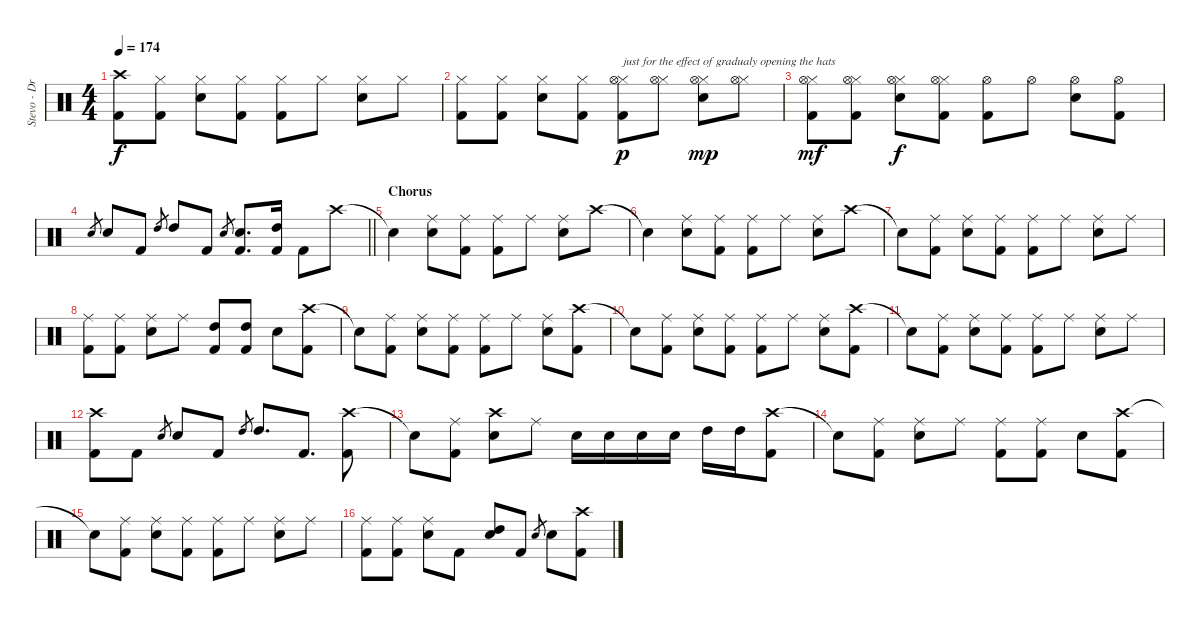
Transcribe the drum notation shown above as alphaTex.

\track ("Stevo - Drums" "Stevo - Dr") {instrument percussion}
\staff {score}
\articulation defaults
\ts (4 4)
\tempo 174
\clef neutral
\ks c
("Crash high (hit)" "Kick (hit) 2").8{dy f} ("Hi-Hat (closed)" "Kick (hit) 2").8 ("Hi-Hat (closed)" "Electric Snare (hit)").8 ("Hi-Hat (closed)" "Kick (hit) 2").8 ("Hi-Hat (closed)" "Kick (hit) 2").8 "Hi-Hat (closed)".8 ("Hi-Hat (closed)" "Electric Snare (hit)").8 "Hi-Hat (closed)".8 |
("Hi-Hat (closed)" "Kick (hit) 2").8 ("Hi-Hat (closed)" "Kick (hit) 2").8 ("Hi-Hat (closed)" "Electric Snare (hit)").8 ("Hi-Hat (closed)" "Kick (hit) 2").8 ("Hi-Hat (closed)" "Hi-Hat (open)" "Kick (hit) 2").8{txt "just for the effect of gradualy opening the hats" dy p} ("Hi-Hat (closed)" "Hi-Hat (open)").8 ("Hi-Hat (closed)" "Hi-Hat (open)" "Electric Snare (hit)").8{dy mp} ("Hi-Hat (closed)" "Hi-Hat (open)").8 |
("Hi-Hat (closed)" "Hi-Hat (open)" "Kick (hit) 2").8{dy mf} ("Hi-Hat (closed)" "Hi-Hat (open)" "Kick (hit) 2").8 ("Hi-Hat (closed)" "Hi-Hat (open)" "Electric Snare (hit)").8{dy f} ("Hi-Hat (closed)" "Hi-Hat (open)" "Kick (hit) 2").8 ("Hi-Hat (open)" "Kick (hit) 2").8 "Hi-Hat (open)".8 ("Hi-Hat (open)" "Electric Snare (hit)").8 ("Hi-Hat (open)" "Kick (hit) 2").8 |
\barLineRight lightlight "Electric Snare (hit)".8{gr} "Electric Snare (hit)".8 "Kick (hit) 2".8 "High Tom (hit)".8{gr} "High Tom (hit)".8 "Kick (hit) 2".8 "Electric Snare (hit)".8{gr}
("Electric Snare (hit)" "Kick (hit) 2").8{d} ("High Tom (hit)" "Kick (hit) 2").16 "Kick (hit) 2".8 "Crash high (hit)".8 |
\section ("" "Chorus")
"Snare (hit)"{t}.4 ("Ride (middle)" "Electric Snare (hit)").8 ("Ride (middle)" "Kick (hit) 2").8 ("Ride (middle)" "Kick (hit) 2").8 "Ride (middle)".8 ("Ride (middle)" "Electric Snare (hit)").8 "Crash high (hit)".8 |
"Snare (hit)"{t}.4 ("Ride (middle)" "Electric Snare (hit)").8 ("Ride (middle)" "Kick (hit) 2").8 ("Ride (middle)" "Kick (hit) 2").8 "Ride (middle)".8 ("Ride (middle)" "Electric Snare (hit)").8 "Crash high (hit)".8 |
"Snare (hit)"{t}.8 ("Ride (middle)" "Kick (hit) 2").8 ("Ride (middle)" "Electric Snare (hit)").8 ("Ride (middle)" "Kick (hit) 2").8 ("Ride (middle)" "Kick (hit) 2").8 "Ride (middle)".8 ("Ride (middle)" "Electric Snare (hit)").8 "Ride (middle)".8 |
("Ride (middle)" "Kick (hit) 2").8 ("Ride (middle)" "Kick (hit) 2").8 ("Ride (middle)" "Electric Snare (hit)").8 "Ride (middle)".8 ("High Tom (hit)" "Kick (hit) 2").8 ("High Tom (hit)" "Kick (hit) 2").8 "Electric Snare (hit)".8 ("Crash high (hit)" "Kick (hit) 2").8 |
"Snare (hit)"{t}.8 ("Ride (middle)" "Kick (hit) 2").8 ("Ride (middle)" "Electric Snare (hit)").8 ("Ride (middle)" "Kick (hit) 2").8 ("Ride (middle)" "Kick (hit) 2").8 "Ride (middle)".8 ("Ride (middle)" "Electric Snare (hit)").8 ("Crash high (hit)" "Kick (hit) 2").8 |
"Snare (hit)"{t}.8 ("Ride (middle)" "Kick (hit) 2").8 ("Ride (middle)" "Electric Snare (hit)").8 ("Ride (middle)" "Kick (hit) 2").8 ("Ride (middle)" "Kick (hit) 2").8 "Ride (middle)".8 ("Ride (middle)" "Electric Snare (hit)").8 ("Crash high (hit)" "Kick (hit) 2").8 |
"Snare (hit)"{t}.8 ("Ride (middle)" "Kick (hit) 2").8 ("Ride (middle)" "Electric Snare (hit)").8 ("Ride (middle)" "Kick (hit) 2").8 ("Ride (middle)" "Kick (hit) 2").8 "Ride (middle)".8 ("Ride (middle)" "Electric Snare (hit)").8 "Ride (middle)".8 |
("Crash high (hit)" "Kick (hit) 2").8 "Kick (hit) 2".8 "Electric Snare (hit)".8{gr} "Electric Snare (hit)".8 "Kick (hit) 2".8 "High Tom (hit)".8{gr} "High Tom (hit)".8{d} "Kick (hit) 2".8{d} ("Crash high (hit)" "Kick (hit) 2").8 |
"Snare (hit)"{t}.8 ("Ride (middle)" "Kick (hit) 2").8 ("Crash high (hit)" "Electric Snare (hit)").8 "Ride (middle)".8 "Electric Snare (hit)".16 "Electric Snare (hit)".16 "Electric Snare (hit)".16 "Electric Snare (hit)".16 "High Tom (hit)".16 "High Tom (hit)".16 ("Crash high (hit)" "Kick (hit) 2").8 |
"Snare (hit)"{t}.8 ("Ride (middle)" "Kick (hit) 2").8 ("Ride (middle)" "Electric Snare (hit)").8 "Ride (middle)".8 ("Ride (middle)" "Kick (hit) 2").8 ("Ride (middle)" "Kick (hit) 2").8 "Electric Snare (hit)".8 ("Crash high (hit)" "Kick (hit) 2").8 |
"Snare (hit)"{t}.8 ("Ride (middle)" "Kick (hit) 2").8 ("Ride (middle)" "Electric Snare (hit)").8 ("Ride (middle)" "Kick (hit) 2").8 ("Ride (middle)" "Kick (hit) 2").8 "Ride (middle)".8 ("Ride (middle)" "Electric Snare (hit)").8 "Ride (middle)".8 |
("Ride (middle)" "Kick (hit) 2").8 ("Ride (middle)" "Kick (hit) 2").8 ("Ride (middle)" "Electric Snare (hit)").8 "Kick (hit) 2".8 ("High Tom (hit)" "Electric Snare (hit)").8 "Kick (hit) 2".8 "Electric Snare (hit)".8{gr} "Electric Snare (hit)".8 ("Crash high (hit)" "Kick (hit) 2").8
